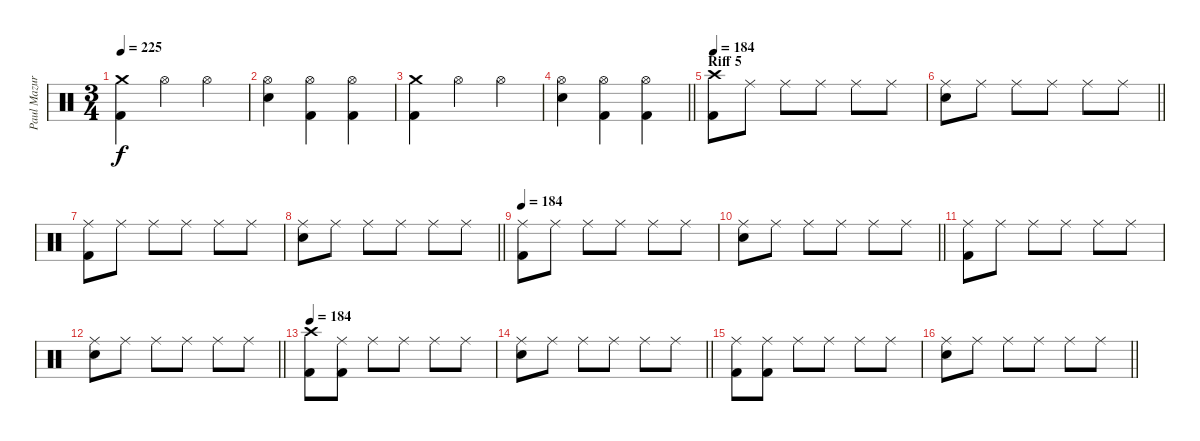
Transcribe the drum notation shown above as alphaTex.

\track ("Paul Mazurkiewicz" "Paul Mazur") {instrument percussion}
\staff {score}
\articulation defaults
\ts (3 4)
\tempo 225
\clef neutral
\ks c
("Crash medium (hit)" "Kick (hit) 2").4{dy f} "Hi-Hat (open)".4 "Hi-Hat (open)".4 |
("Hi-Hat (open)" "Electric Snare (hit)").4 ("Hi-Hat (open)" "Kick (hit) 2").4 ("Hi-Hat (open)" "Kick (hit) 2").4 |
("Crash medium (hit)" "Kick (hit) 2").4 "Hi-Hat (open)".4 "Hi-Hat (open)".4 |
\barLineRight lightlight
("Hi-Hat (open)" "Electric Snare (hit)").4 ("Hi-Hat (open)" "Kick (hit) 2").4 ("Hi-Hat (open)" "Kick (hit) 2").4 |
\section ("" "Riff 5")
\tempo 184
("Crash high (hit)" "Kick (hit) 2").8 "Ride (middle)".8 "Ride (middle)".8 "Ride (middle)".8 "Ride (middle)".8 "Ride (middle)".8 |
\barLineRight lightlight
("Ride (middle)" "Electric Snare (hit)").8 "Ride (middle)".8 "Ride (middle)".8 "Ride (middle)".8 "Ride (middle)".8 "Ride (middle)".8 |
("Ride (middle)" "Kick (hit) 2").8 "Ride (middle)".8 "Ride (middle)".8 "Ride (middle)".8 "Ride (middle)".8 "Ride (middle)".8 |
\barLineRight lightlight
("Ride (middle)" "Electric Snare (hit)").8 "Ride (middle)".8 "Ride (middle)".8 "Ride (middle)".8 "Ride (middle)".8 "Ride (middle)".8 |
\tempo 184
("Ride (middle)" "Kick (hit) 2").8 "Ride (middle)".8 "Ride (middle)".8 "Ride (middle)".8 "Ride (middle)".8 "Ride (middle)".8 |
\barLineRight lightlight
("Ride (middle)" "Electric Snare (hit)").8 "Ride (middle)".8 "Ride (middle)".8 "Ride (middle)".8 "Ride (middle)".8 "Ride (middle)".8 |
("Ride (middle)" "Kick (hit) 2").8 "Ride (middle)".8 "Ride (middle)".8 "Ride (middle)".8 "Ride (middle)".8 "Ride (middle)".8 |
\barLineRight lightlight
("Ride (middle)" "Electric Snare (hit)").8 "Ride (middle)".8 "Ride (middle)".8 "Ride (middle)".8 "Ride (middle)".8 "Ride (middle)".8 |
\tempo 184
("Crash high (hit)" "Kick (hit) 2").8 ("Ride (middle)" "Kick (hit) 2").8 "Ride (middle)".8 "Ride (middle)".8 "Ride (middle)".8 "Ride (middle)".8 |
\barLineRight lightlight
("Ride (middle)" "Electric Snare (hit)").8 "Ride (middle)".8 "Ride (middle)".8 "Ride (middle)".8 "Ride (middle)".8 "Ride (middle)".8 |
("Ride (middle)" "Kick (hit) 2").8 ("Ride (middle)" "Kick (hit) 2").8 "Ride (middle)".8 "Ride (middle)".8 "Ride (middle)".8 "Ride (middle)".8 |
\barLineRight lightlight
("Ride (middle)" "Electric Snare (hit)").8 "Ride (middle)".8 "Ride (middle)".8 "Ride (middle)".8 "Ride (middle)".8 "Ride (middle)".8
